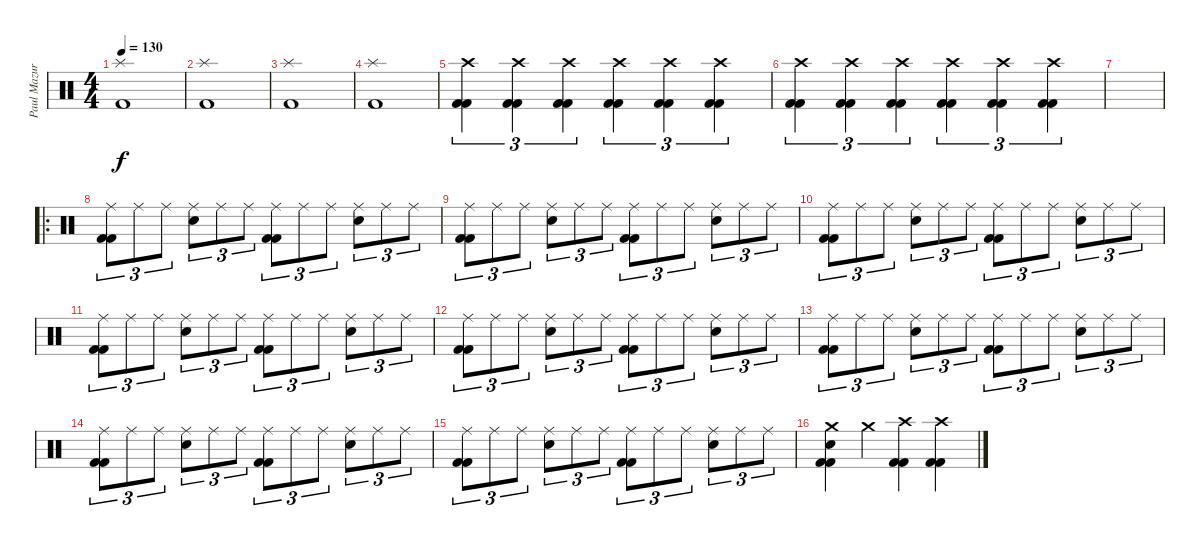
\track ("Paul Mazurkiewicz" "Paul Mazur") {instrument percussion}
\staff {score}
\articulation defaults
\ts (4 4)
\tempo 130
\clef neutral
\ks c
("Splash (hit)" "Kick (hit) 2").1{dy f} |
("Splash (hit)" "Kick (hit) 2").1 |
("Splash (hit)" "Kick (hit) 2").1 |
("Splash (hit)" "Kick (hit) 2").1 |
("Crash high (hit)" "Kick (hit) 2" "Kick (hit) 2").4{tu (3 2)} ("Crash high (hit)" "Kick (hit) 2" "Kick (hit) 2").4{tu (3 2)} ("Crash high (hit)" "Kick (hit) 2" "Kick (hit) 2").4{tu (3 2)} ("Crash high (hit)" "Kick (hit) 2" "Kick (hit) 2").4{tu (3 2)} ("Crash high (hit)" "Kick (hit) 2" "Kick (hit) 2").4{tu (3 2)} ("Crash high (hit)" "Kick (hit) 2" "Kick (hit) 2").4{tu (3 2)} |
("Crash high (hit)" "Kick (hit) 2" "Kick (hit) 2").4{tu (3 2)} ("Crash high (hit)" "Kick (hit) 2" "Kick (hit) 2").4{tu (3 2)} ("Crash high (hit)" "Kick (hit) 2" "Kick (hit) 2").4{tu (3 2)} ("Crash high (hit)" "Kick (hit) 2" "Kick (hit) 2").4{tu (3 2)} ("Crash high (hit)" "Kick (hit) 2" "Kick (hit) 2").4{tu (3 2)} ("Crash high (hit)" "Kick (hit) 2" "Kick (hit) 2").4{tu (3 2)} |
|
\ro
("Ride (middle)" "Kick (hit) 2" "Kick (hit) 2").8{tu (3 2)} "Ride (middle)".8{tu (3 2)} "Ride (middle)".8{tu (3 2)} ("Ride (middle)" "Snare (hit) 2").8{tu (3 2)} "Ride (middle)".8{tu (3 2)} "Ride (middle)".8{tu (3 2)} ("Ride (middle)" "Kick (hit) 2" "Kick (hit) 2").8{tu (3 2)} "Ride (middle)".8{tu (3 2)} "Ride (middle)".8{tu (3 2)} ("Ride (middle)" "Snare (hit) 2").8{tu (3 2)} "Ride (middle)".8{tu (3 2)} "Ride (middle)".8{tu (3 2)} |
("Ride (middle)" "Kick (hit) 2" "Kick (hit) 2").8{tu (3 2)} "Ride (middle)".8{tu (3 2)} "Ride (middle)".8{tu (3 2)} ("Ride (middle)" "Snare (hit) 2").8{tu (3 2)} "Ride (middle)".8{tu (3 2)} "Ride (middle)".8{tu (3 2)} ("Ride (middle)" "Kick (hit) 2" "Kick (hit) 2").8{tu (3 2)} "Ride (middle)".8{tu (3 2)} "Ride (middle)".8{tu (3 2)} ("Ride (middle)" "Snare (hit) 2").8{tu (3 2)} "Ride (middle)".8{tu (3 2)} "Ride (middle)".8{tu (3 2)} |
("Ride (middle)" "Kick (hit) 2" "Kick (hit) 2").8{tu (3 2)} "Ride (middle)".8{tu (3 2)} "Ride (middle)".8{tu (3 2)} ("Ride (middle)" "Snare (hit) 2").8{tu (3 2)} "Ride (middle)".8{tu (3 2)} "Ride (middle)".8{tu (3 2)} ("Ride (middle)" "Kick (hit) 2" "Kick (hit) 2").8{tu (3 2)} "Ride (middle)".8{tu (3 2)} "Ride (middle)".8{tu (3 2)} ("Ride (middle)" "Snare (hit) 2").8{tu (3 2)} "Ride (middle)".8{tu (3 2)} "Ride (middle)".8{tu (3 2)} |
("Ride (middle)" "Kick (hit) 2" "Kick (hit) 2").8{tu (3 2)} "Ride (middle)".8{tu (3 2)} "Ride (middle)".8{tu (3 2)} ("Ride (middle)" "Snare (hit) 2").8{tu (3 2)} "Ride (middle)".8{tu (3 2)} "Ride (middle)".8{tu (3 2)} ("Ride (middle)" "Kick (hit) 2" "Kick (hit) 2").8{tu (3 2)} "Ride (middle)".8{tu (3 2)} "Ride (middle)".8{tu (3 2)} ("Ride (middle)" "Snare (hit) 2").8{tu (3 2)} "Ride (middle)".8{tu (3 2)} "Ride (middle)".8{tu (3 2)} |
("Ride (middle)" "Kick (hit) 2" "Kick (hit) 2").8{tu (3 2)} "Ride (middle)".8{tu (3 2)} "Ride (middle)".8{tu (3 2)} ("Ride (middle)" "Snare (hit) 2").8{tu (3 2)} "Ride (middle)".8{tu (3 2)} "Ride (middle)".8{tu (3 2)} ("Ride (middle)" "Kick (hit) 2" "Kick (hit) 2").8{tu (3 2)} "Ride (middle)".8{tu (3 2)} "Ride (middle)".8{tu (3 2)} ("Ride (middle)" "Snare (hit) 2").8{tu (3 2)} "Ride (middle)".8{tu (3 2)} "Ride (middle)".8{tu (3 2)} |
("Ride (middle)" "Kick (hit) 2" "Kick (hit) 2").8{tu (3 2)} "Ride (middle)".8{tu (3 2)} "Ride (middle)".8{tu (3 2)} ("Ride (middle)" "Snare (hit) 2").8{tu (3 2)} "Ride (middle)".8{tu (3 2)} "Ride (middle)".8{tu (3 2)} ("Ride (middle)" "Kick (hit) 2" "Kick (hit) 2").8{tu (3 2)} "Ride (middle)".8{tu (3 2)} "Ride (middle)".8{tu (3 2)} ("Ride (middle)" "Snare (hit) 2").8{tu (3 2)} "Ride (middle)".8{tu (3 2)} "Ride (middle)".8{tu (3 2)} |
("Ride (middle)" "Kick (hit) 2" "Kick (hit) 2").8{tu (3 2)} "Ride (middle)".8{tu (3 2)} "Ride (middle)".8{tu (3 2)} ("Ride (middle)" "Snare (hit) 2").8{tu (3 2)} "Ride (middle)".8{tu (3 2)} "Ride (middle)".8{tu (3 2)} ("Ride (middle)" "Kick (hit) 2" "Kick (hit) 2").8{tu (3 2)} "Ride (middle)".8{tu (3 2)} "Ride (middle)".8{tu (3 2)} ("Ride (middle)" "Snare (hit) 2").8{tu (3 2)} "Ride (middle)".8{tu (3 2)} "Ride (middle)".8{tu (3 2)} |
("Ride (middle)" "Kick (hit) 2" "Kick (hit) 2").8{tu (3 2)} "Ride (middle)".8{tu (3 2)} "Ride (middle)".8{tu (3 2)} ("Ride (middle)" "Snare (hit) 2").8{tu (3 2)} "Ride (middle)".8{tu (3 2)} "Ride (middle)".8{tu (3 2)} ("Ride (middle)" "Kick (hit) 2" "Kick (hit) 2").8{tu (3 2)} "Ride (middle)".8{tu (3 2)} "Ride (middle)".8{tu (3 2)} ("Ride (middle)" "Snare (hit) 2").8{tu (3 2)} "Ride (middle)".8{tu (3 2)} "Ride (middle)".8{tu (3 2)} |
("Crash medium (hit)" "Snare (hit) 2" "Kick (hit) 2" "Kick (hit) 2").4 "Crash medium (hit)".4 ("Crash high (hit)" "Kick (hit) 2" "Kick (hit) 2").4 ("Crash high (hit)" "Kick (hit) 2" "Kick (hit) 2").4
